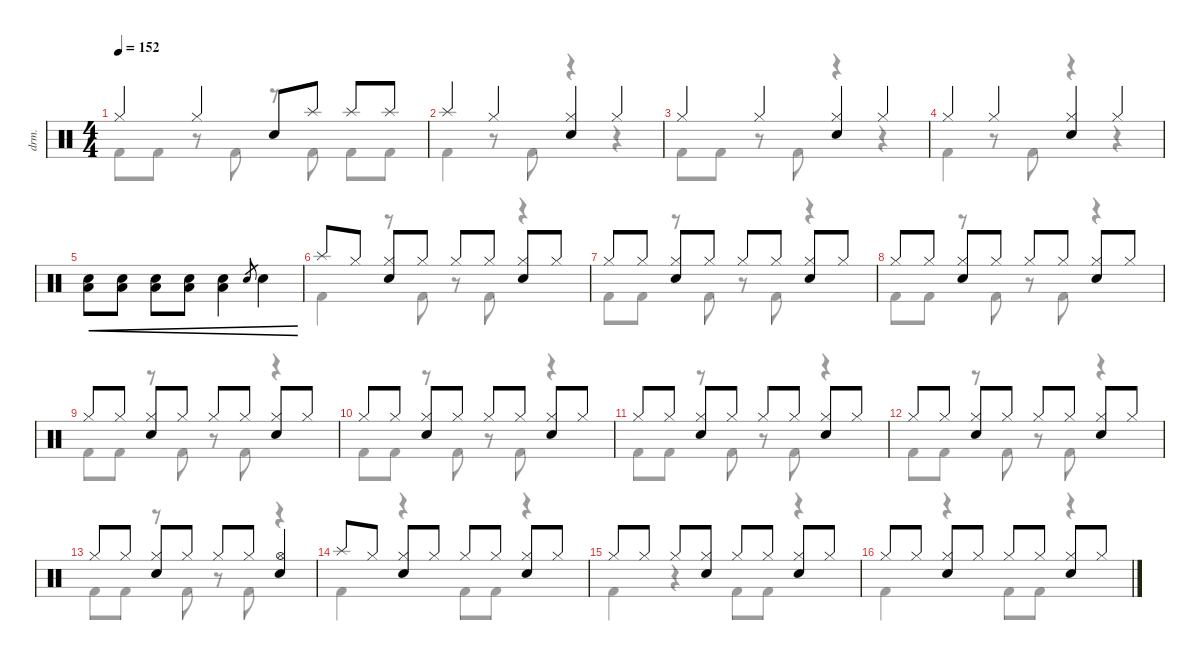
\defaultSystemsLayout 4
\hideDynamics
\bracketExtendMode nobrackets
\track ("Drumkit" "drm.") {instrument percussion}
\staff {score}
\articulation defaults
\voice
\ts (4 4)
\tempo 152
\clef neutral
\ks c "Hi-Hat (closed)".4{dy mf beam Up} "Hi-Hat (closed)".4{beam Up} "Snare (hit) 2".8{beam Up} "Splash (hit)".8{beam Up} "Splash (hit)".8{beam Up} "Splash (hit)".8{beam Up}
|
"Splash (hit)".4{beam Up} "Hi-Hat (closed)".4{beam Up} ("Hi-Hat (closed)" "Snare (hit) 2").4{beam Up} "Hi-Hat (closed)".4{beam Up} |
"Hi-Hat (closed)".4{beam Up} "Hi-Hat (closed)".4{beam Up} ("Hi-Hat (closed)" "Snare (hit) 2").4{beam Up} "Hi-Hat (closed)".4{beam Up} |
"Hi-Hat (closed)".4{beam Up} "Hi-Hat (closed)".4{beam Up} ("Hi-Hat (closed)" "Snare (hit) 2").4{beam Up} "Hi-Hat (closed)".4{beam Up} |
("Snare (hit) 2" "Low Tom (hit)").8{cre beam Down} ("Snare (hit) 2" "Low Tom (hit)").8{cre beam Down} ("Snare (hit) 2" "Low Tom (hit)").8{cre beam Down} ("Snare (hit) 2" "Low Tom (hit)").8{cre beam Down} ("Snare (hit) 2" "Low Tom (hit)").4{cre beam Down} "Snare (hit) 2".8{gr cre beam Up} "Snare (hit) 2".4{cre beam Down} |
"Splash (hit)".8{beam Up} "Hi-Hat (closed)".8{beam Up} ("Hi-Hat (closed)" "Snare (hit) 2").8{beam Up} "Hi-Hat (closed)".8{beam Up} "Hi-Hat (closed)".8{beam Up} "Hi-Hat (closed)".8{beam Up} ("Hi-Hat (closed)" "Snare (hit) 2").8{beam Up} "Hi-Hat (closed)".8{beam Up} |
"Hi-Hat (closed)".8{beam Up} "Hi-Hat (closed)".8{beam Up} ("Hi-Hat (closed)" "Snare (hit) 2").8{beam Up} "Hi-Hat (closed)".8{beam Up} "Hi-Hat (closed)".8{beam Up} "Hi-Hat (closed)".8{beam Up} ("Hi-Hat (closed)" "Snare (hit) 2").8{beam Up} "Hi-Hat (closed)".8{beam Up} |
"Hi-Hat (closed)".8{beam Up} "Hi-Hat (closed)".8{beam Up} ("Hi-Hat (closed)" "Snare (hit) 2").8{beam Up} "Hi-Hat (closed)".8{beam Up} "Hi-Hat (closed)".8{beam Up} "Hi-Hat (closed)".8{beam Up} ("Hi-Hat (closed)" "Snare (hit) 2").8{beam Up} "Hi-Hat (closed)".8{beam Up} |
"Hi-Hat (closed)".8{beam Up} "Hi-Hat (closed)".8{beam Up} ("Hi-Hat (closed)" "Snare (hit) 2").8{beam Up} "Hi-Hat (closed)".8{beam Up} "Hi-Hat (closed)".8{beam Up} "Hi-Hat (closed)".8{beam Up} ("Hi-Hat (closed)" "Snare (hit) 2").8{beam Up} "Hi-Hat (closed)".8{beam Up} |
"Hi-Hat (closed)".8{beam Up} "Hi-Hat (closed)".8{beam Up} ("Hi-Hat (closed)" "Snare (hit) 2").8{beam Up} "Hi-Hat (closed)".8{beam Up} "Hi-Hat (closed)".8{beam Up} "Hi-Hat (closed)".8{beam Up} ("Hi-Hat (closed)" "Snare (hit) 2").8{beam Up} "Hi-Hat (closed)".8{beam Up} |
"Hi-Hat (closed)".8{beam Up} "Hi-Hat (closed)".8{beam Up} ("Hi-Hat (closed)" "Snare (hit) 2").8{beam Up} "Hi-Hat (closed)".8{beam Up} "Hi-Hat (closed)".8{beam Up} "Hi-Hat (closed)".8{beam Up} ("Hi-Hat (closed)" "Snare (hit) 2").8{beam Up} "Hi-Hat (closed)".8{beam Up} |
"Hi-Hat (closed)".8{beam Up} "Hi-Hat (closed)".8{beam Up} ("Hi-Hat (closed)" "Snare (hit) 2").8{beam Up} "Hi-Hat (closed)".8{beam Up} "Hi-Hat (closed)".8{beam Up} "Hi-Hat (closed)".8{beam Up} ("Hi-Hat (closed)" "Snare (hit) 2").8{beam Up} "Hi-Hat (closed)".8{beam Up} |
"Hi-Hat (closed)".8{beam Up} "Hi-Hat (closed)".8{beam Up} ("Hi-Hat (closed)" "Snare (hit) 2").8{beam Up} "Hi-Hat (closed)".8{beam Up} "Hi-Hat (closed)".8{beam Up} "Hi-Hat (closed)".8{beam Up} ("Hi-Hat (open)" "Snare (hit) 2").4{beam Up} |
"Splash (hit)".8{beam Up} "Hi-Hat (closed)".8{beam Up} ("Hi-Hat (closed)" "Snare (hit) 2").8{beam Up} "Hi-Hat (closed)".8{beam Up} "Hi-Hat (closed)".8{beam Up} "Hi-Hat (closed)".8{beam Up} ("Hi-Hat (closed)" "Snare (hit) 2").8{beam Up} "Hi-Hat (closed)".8{beam Up} |
"Hi-Hat (closed)".8{beam Up} "Hi-Hat (closed)".8{beam Up} "Hi-Hat (closed)".8{beam Up} ("Hi-Hat (closed)" "Snare (hit) 2").8{beam Up} "Hi-Hat (closed)".8{beam Up} "Hi-Hat (closed)".8{beam Up} ("Hi-Hat (closed)" "Snare (hit) 2").8{beam Up} "Hi-Hat (closed)".8{beam Up} |
"Hi-Hat (closed)".8{beam Up} "Hi-Hat (closed)".8{beam Up} ("Hi-Hat (closed)" "Snare (hit) 2").8{beam Up} "Hi-Hat (closed)".8{beam Up} "Hi-Hat (closed)".8{beam Up} "Hi-Hat (closed)".8{beam Up} ("Hi-Hat (closed)" "Snare (hit) 2").8{beam Up} "Hi-Hat (closed)".8{beam Up}
\voice
\clef neutral
\ottava regular
\simile none
\ks c "Kick (hit) 2".8{dy mf beam Down} "Kick (hit) 2".8{beam Down}
r.8{beam Down} "Kick (hit) 2".8{beam Down} r.8{beam Down} "Kick (hit) 2".8{beam Down} "Kick (hit) 2".8{beam Down} "Kick (hit) 2".8{beam Down} |
"Kick (hit) 2".4{beam Down} r.8{beam Down} "Kick (hit) 2".8{beam Down} r.4{beam Down} r.4{beam Down} |
"Kick (hit) 2".8{beam Down} "Kick (hit) 2".8{beam Down} r.8{beam Down} "Kick (hit) 2".8{beam Down} r.4{beam Down} r.4{beam Down} |
"Kick (hit) 2".4{beam Down} r.8{beam Down} "Kick (hit) 2".8{beam Down} r.4{beam Down} r.4{beam Down} |
|
"Kick (hit) 2".4{beam Down} r.8{beam Down} "Kick (hit) 2".8{beam Down} r.8{beam Down} "Kick (hit) 2".8{beam Down} r.4{beam Down} |
"Kick (hit) 2".8{beam Down} "Kick (hit) 2".8{beam Down} r.8{beam Down} "Kick (hit) 2".8{beam Down} r.8{beam Down} "Kick (hit) 2".8{beam Down} r.4{beam Down} |
"Kick (hit) 2".8{beam Down} "Kick (hit) 2".8{beam Down} r.8{beam Down} "Kick (hit) 2".8{beam Down} r.8{beam Down} "Kick (hit) 2".8{beam Down} r.4{beam Down} |
"Kick (hit) 2".8{beam Down} "Kick (hit) 2".8{beam Down} r.8{beam Down} "Kick (hit) 2".8{beam Down} r.8{beam Down} "Kick (hit) 2".8{beam Down} r.4{beam Down} |
"Kick (hit) 2".8{beam Down} "Kick (hit) 2".8{beam Down} r.8{beam Down} "Kick (hit) 2".8{beam Down} r.8{beam Down} "Kick (hit) 2".8{beam Down} r.4{beam Down} |
"Kick (hit) 2".8{beam Down} "Kick (hit) 2".8{beam Down} r.8{beam Down} "Kick (hit) 2".8{beam Down} r.8{beam Down} "Kick (hit) 2".8{beam Down} r.4{beam Down} |
"Kick (hit) 2".8{beam Down} "Kick (hit) 2".8{beam Down} r.8{beam Down} "Kick (hit) 2".8{beam Down} r.8{beam Down} "Kick (hit) 2".8{beam Down} r.4{beam Down} |
"Kick (hit) 2".8{beam Down} "Kick (hit) 2".8{beam Down} r.8{beam Down} "Kick (hit) 2".8{beam Down} r.8{beam Down} "Kick (hit) 2".8{beam Down} r.4{beam Down} |
"Kick (hit) 2".4{beam Down} r.4{beam Down} "Kick (hit) 2".8{beam Down} "Kick (hit) 2".8{beam Down} r.4{beam Down} |
"Kick (hit) 2".4{beam Down} r.4{beam Down} "Kick (hit) 2".8{beam Down} "Kick (hit) 2".8{beam Down} r.4{beam Down} |
"Kick (hit) 2".4{beam Down} r.4{beam Down} "Kick (hit) 2".8{beam Down} "Kick (hit) 2".8{beam Down} r.4{beam Down}
